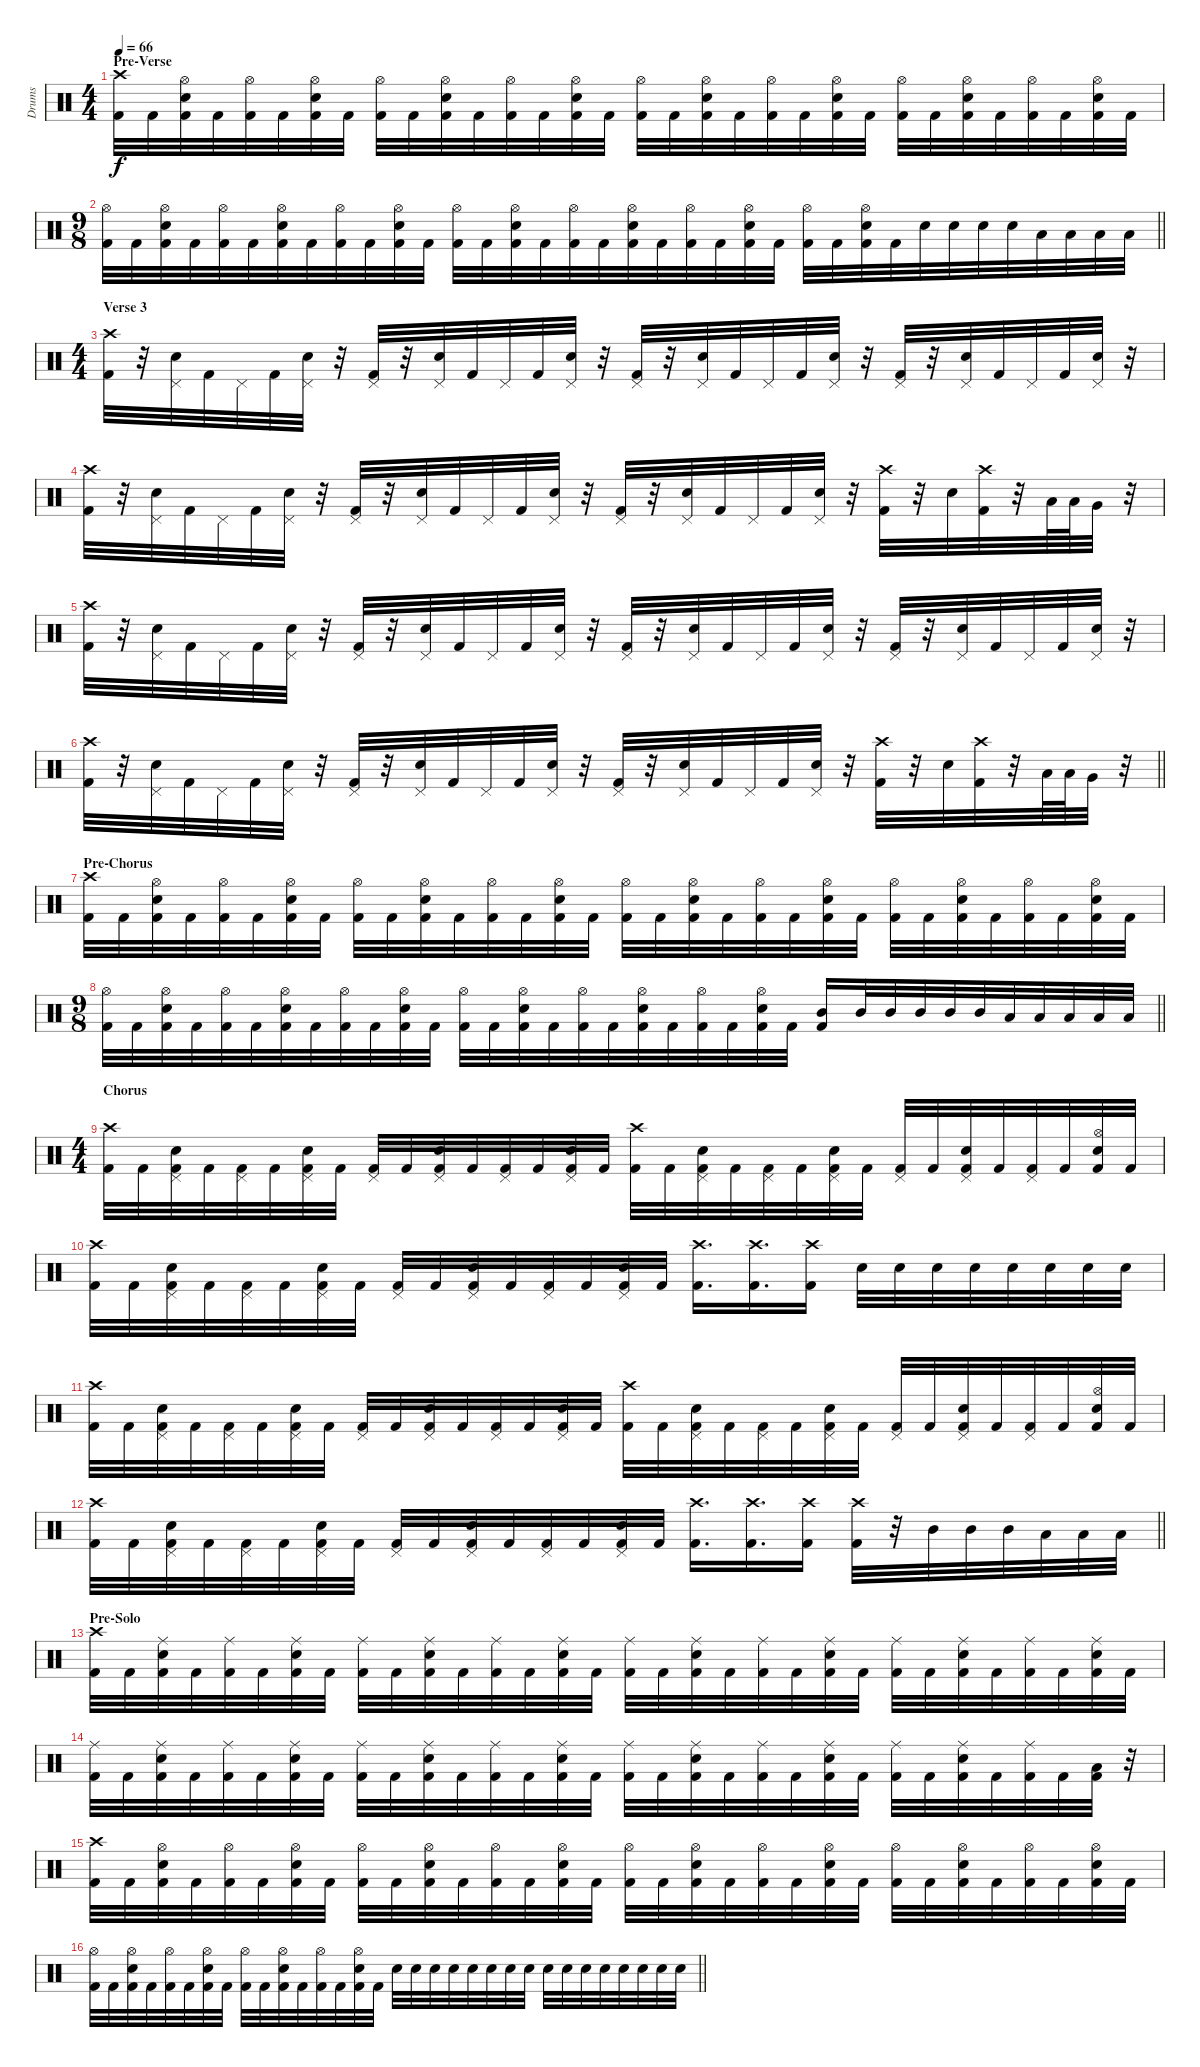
\track ("Drums" "Drums") {instrument percussion}
\staff {score}
\articulation defaults
\ts (4 4)
\section ("" "Pre-Verse")
\tempo 66
\clef neutral
\ks c
("Crash high (hit)" "Kick (hit) 2").32{dy f} "Kick (hit) 2".32 ("Hi-Hat (open)" "Snare (hit) 2" "Kick (hit) 2").32 "Kick (hit) 2".32 ("Hi-Hat (open)" "Kick (hit) 2").32 "Kick (hit) 2".32 ("Hi-Hat (open)" "Snare (hit) 2" "Kick (hit) 2").32 "Kick (hit) 2".32 ("Hi-Hat (open)" "Kick (hit) 2").32 "Kick (hit) 2".32 ("Hi-Hat (open)" "Snare (hit) 2" "Kick (hit) 2").32 "Kick (hit) 2".32 ("Hi-Hat (open)" "Kick (hit) 2").32 "Kick (hit) 2".32 ("Hi-Hat (open)" "Snare (hit) 2" "Kick (hit) 2").32 "Kick (hit) 2".32 ("Hi-Hat (open)" "Kick (hit) 2").32 "Kick (hit) 2".32 ("Hi-Hat (open)" "Snare (hit) 2" "Kick (hit) 2").32 "Kick (hit) 2".32 ("Hi-Hat (open)" "Kick (hit) 2").32 "Kick (hit) 2".32 ("Hi-Hat (open)" "Snare (hit) 2" "Kick (hit) 2").32 "Kick (hit) 2".32 ("Hi-Hat (open)" "Kick (hit) 2").32 "Kick (hit) 2".32 ("Hi-Hat (open)" "Snare (hit) 2" "Kick (hit) 2").32 "Kick (hit) 2".32 ("Hi-Hat (open)" "Kick (hit) 2").32 "Kick (hit) 2".32 ("Hi-Hat (open)" "Snare (hit) 2" "Kick (hit) 2").32 "Kick (hit) 2".32 |
\ts (9 8)
\barLineRight lightlight
("Hi-Hat (open)" "Kick (hit) 2").32 "Kick (hit) 2".32 ("Hi-Hat (open)" "Snare (hit) 2" "Kick (hit) 2").32 "Kick (hit) 2".32 ("Hi-Hat (open)" "Kick (hit) 2").32 "Kick (hit) 2".32 ("Hi-Hat (open)" "Snare (hit) 2" "Kick (hit) 2").32 "Kick (hit) 2".32 ("Hi-Hat (open)" "Kick (hit) 2").32 "Kick (hit) 2".32 ("Hi-Hat (open)" "Snare (hit) 2" "Kick (hit) 2").32 "Kick (hit) 2".32 ("Hi-Hat (open)" "Kick (hit) 2").32 "Kick (hit) 2".32 ("Hi-Hat (open)" "Snare (hit) 2" "Kick (hit) 2").32 "Kick (hit) 2".32 ("Hi-Hat (open)" "Kick (hit) 2").32 "Kick (hit) 2".32 ("Hi-Hat (open)" "Snare (hit) 2" "Kick (hit) 2").32 "Kick (hit) 2".32 ("Hi-Hat (open)" "Kick (hit) 2").32 "Kick (hit) 2".32 ("Hi-Hat (open)" "Snare (hit) 2" "Kick (hit) 2").32 "Kick (hit) 2".32 ("Hi-Hat (open)" "Kick (hit) 2").32 "Kick (hit) 2".32 ("Hi-Hat (open)" "Snare (hit) 2" "Kick (hit) 2").32 "Kick (hit) 2".32 "Snare (hit) 2".32 "Snare (hit) 2".32 "Snare (hit) 2".32 "Snare (hit) 2".32 "Low Tom (hit)".32 "Low Tom (hit)".32 "Low Tom (hit)".32 "Low Tom (hit)".32 |
\ts (4 4)
\section ("" "Verse 3")
("Crash high (hit)" "Kick (hit) 2").32 r.32 ("Pedal Hi-Hat (hit)" "Snare (hit) 2").32 "Kick (hit) 2".32 "Pedal Hi-Hat (hit)".32 "Kick (hit) 2".32 ("Pedal Hi-Hat (hit)" "Snare (hit) 2").32 r.32 ("Pedal Hi-Hat (hit)" "Kick (hit) 2").32 r.32 ("Pedal Hi-Hat (hit)" "Snare (hit) 2").32 "Kick (hit) 2".32 "Pedal Hi-Hat (hit)".32 "Kick (hit) 2".32 ("Pedal Hi-Hat (hit)" "Snare (hit) 2").32 r.32 ("Pedal Hi-Hat (hit)" "Kick (hit) 2").32 r.32 ("Pedal Hi-Hat (hit)" "Snare (hit) 2").32 "Kick (hit) 2".32 "Pedal Hi-Hat (hit)".32 "Kick (hit) 2".32 ("Pedal Hi-Hat (hit)" "Snare (hit) 2").32 r.32 ("Pedal Hi-Hat (hit)" "Kick (hit) 2").32 r.32 ("Pedal Hi-Hat (hit)" "Snare (hit) 2").32 "Kick (hit) 2".32 "Pedal Hi-Hat (hit)".32 "Kick (hit) 2".32 ("Pedal Hi-Hat (hit)" "Snare (hit) 2").32 r.32 |
("Crash high (hit)" "Kick (hit) 2").32 r.32 ("Pedal Hi-Hat (hit)" "Snare (hit) 2").32 "Kick (hit) 2".32 "Pedal Hi-Hat (hit)".32 "Kick (hit) 2".32 ("Pedal Hi-Hat (hit)" "Snare (hit) 2").32 r.32 ("Pedal Hi-Hat (hit)" "Kick (hit) 2").32 r.32 ("Pedal Hi-Hat (hit)" "Snare (hit) 2").32 "Kick (hit) 2".32 "Pedal Hi-Hat (hit)".32 "Kick (hit) 2".32 ("Pedal Hi-Hat (hit)" "Snare (hit) 2").32 r.32 ("Pedal Hi-Hat (hit)" "Kick (hit) 2").32 r.32 ("Pedal Hi-Hat (hit)" "Snare (hit) 2").32 "Kick (hit) 2".32 "Pedal Hi-Hat (hit)".32 "Kick (hit) 2".32 ("Pedal Hi-Hat (hit)" "Snare (hit) 2").32 r.32 ("Crash high (hit)" "Kick (hit) 2").32 r.32 "Snare (hit) 2".32 ("Crash high (hit)" "Kick (hit) 2").32 r.32 "Low Tom (hit)".64 "Low Tom (hit)".64 "Very Low Tom (hit)".32 r.32 |
("Crash high (hit)" "Kick (hit) 2").32 r.32 ("Pedal Hi-Hat (hit)" "Snare (hit) 2").32 "Kick (hit) 2".32 "Pedal Hi-Hat (hit)".32 "Kick (hit) 2".32 ("Pedal Hi-Hat (hit)" "Snare (hit) 2").32 r.32 ("Pedal Hi-Hat (hit)" "Kick (hit) 2").32 r.32 ("Pedal Hi-Hat (hit)" "Snare (hit) 2").32 "Kick (hit) 2".32 "Pedal Hi-Hat (hit)".32 "Kick (hit) 2".32 ("Pedal Hi-Hat (hit)" "Snare (hit) 2").32 r.32 ("Pedal Hi-Hat (hit)" "Kick (hit) 2").32 r.32 ("Pedal Hi-Hat (hit)" "Snare (hit) 2").32 "Kick (hit) 2".32 "Pedal Hi-Hat (hit)".32 "Kick (hit) 2".32 ("Pedal Hi-Hat (hit)" "Snare (hit) 2").32 r.32 ("Pedal Hi-Hat (hit)" "Kick (hit) 2").32 r.32 ("Pedal Hi-Hat (hit)" "Snare (hit) 2").32 "Kick (hit) 2".32 "Pedal Hi-Hat (hit)".32 "Kick (hit) 2".32 ("Pedal Hi-Hat (hit)" "Snare (hit) 2").32 r.32 |
\barLineRight lightlight
("Crash high (hit)" "Kick (hit) 2").32 r.32 ("Pedal Hi-Hat (hit)" "Snare (hit) 2").32 "Kick (hit) 2".32 "Pedal Hi-Hat (hit)".32 "Kick (hit) 2".32 ("Pedal Hi-Hat (hit)" "Snare (hit) 2").32 r.32 ("Pedal Hi-Hat (hit)" "Kick (hit) 2").32 r.32 ("Pedal Hi-Hat (hit)" "Snare (hit) 2").32 "Kick (hit) 2".32 "Pedal Hi-Hat (hit)".32 "Kick (hit) 2".32 ("Pedal Hi-Hat (hit)" "Snare (hit) 2").32 r.32 ("Pedal Hi-Hat (hit)" "Kick (hit) 2").32 r.32 ("Pedal Hi-Hat (hit)" "Snare (hit) 2").32 "Kick (hit) 2".32 "Pedal Hi-Hat (hit)".32 "Kick (hit) 2".32 ("Pedal Hi-Hat (hit)" "Snare (hit) 2").32 r.32 ("Crash high (hit)" "Kick (hit) 2").32 r.32 "Snare (hit) 2".32 ("Crash high (hit)" "Kick (hit) 2").32 r.32 "Low Tom (hit)".64 "Low Tom (hit)".64 "Very Low Tom (hit)".32 r.32 |
\section ("" "Pre-Chorus")
("Crash high (hit)" "Kick (hit) 2").32 "Kick (hit) 2".32 ("Hi-Hat (open)" "Snare (hit) 2" "Kick (hit) 2").32 "Kick (hit) 2".32 ("Hi-Hat (open)" "Kick (hit) 2").32 "Kick (hit) 2".32 ("Hi-Hat (open)" "Snare (hit) 2" "Kick (hit) 2").32 "Kick (hit) 2".32 ("Hi-Hat (open)" "Kick (hit) 2").32 "Kick (hit) 2".32 ("Hi-Hat (open)" "Snare (hit) 2" "Kick (hit) 2").32 "Kick (hit) 2".32 ("Hi-Hat (open)" "Kick (hit) 2").32 "Kick (hit) 2".32 ("Hi-Hat (open)" "Snare (hit) 2" "Kick (hit) 2").32 "Kick (hit) 2".32 ("Hi-Hat (open)" "Kick (hit) 2").32 "Kick (hit) 2".32 ("Hi-Hat (open)" "Snare (hit) 2" "Kick (hit) 2").32 "Kick (hit) 2".32 ("Hi-Hat (open)" "Kick (hit) 2").32 "Kick (hit) 2".32 ("Hi-Hat (open)" "Snare (hit) 2" "Kick (hit) 2").32 "Kick (hit) 2".32 ("Hi-Hat (open)" "Kick (hit) 2").32 "Kick (hit) 2".32 ("Hi-Hat (open)" "Snare (hit) 2" "Kick (hit) 2").32 "Kick (hit) 2".32 ("Hi-Hat (open)" "Kick (hit) 2").32 "Kick (hit) 2".32 ("Hi-Hat (open)" "Snare (hit) 2" "Kick (hit) 2").32 "Kick (hit) 2".32 |
\ts (9 8)
\barLineRight lightlight
("Hi-Hat (open)" "Kick (hit) 2").32 "Kick (hit) 2".32 ("Hi-Hat (open)" "Snare (hit) 2" "Kick (hit) 2").32 "Kick (hit) 2".32 ("Hi-Hat (open)" "Kick (hit) 2").32 "Kick (hit) 2".32 ("Hi-Hat (open)" "Snare (hit) 2" "Kick (hit) 2").32 "Kick (hit) 2".32 ("Hi-Hat (open)" "Kick (hit) 2").32 "Kick (hit) 2".32 ("Hi-Hat (open)" "Snare (hit) 2" "Kick (hit) 2").32 "Kick (hit) 2".32 ("Hi-Hat (open)" "Kick (hit) 2").32 "Kick (hit) 2".32 ("Hi-Hat (open)" "Snare (hit) 2" "Kick (hit) 2").32 "Kick (hit) 2".32 ("Hi-Hat (open)" "Kick (hit) 2").32 "Kick (hit) 2".32 ("Hi-Hat (open)" "Snare (hit) 2" "Kick (hit) 2").32 "Kick (hit) 2".32 ("Hi-Hat (open)" "Kick (hit) 2").32 "Kick (hit) 2".32 ("Hi-Hat (open)" "Snare (hit) 2" "Kick (hit) 2").32 "Kick (hit) 2".32 ("Mid Tom (hit)" "Kick (hit) 2").16 "Mid Tom (hit)".32 "Mid Tom (hit)".32 "Mid Tom (hit)".32 "Mid Tom (hit)".32 "Mid Tom (hit)".32 "Low Tom (hit)".32 "Low Tom (hit)".32 "Low Tom (hit)".32 "Low Tom (hit)".32 "Low Tom (hit)".32 |
\ts (4 4)
\section ("" "Chorus")
("Crash high (hit)" "Kick (hit) 2").32 "Kick (hit) 2".32 ("Pedal Hi-Hat (hit)" "Snare (hit) 2" "Kick (hit) 2").32 "Kick (hit) 2".32 ("Pedal Hi-Hat (hit)" "Kick (hit) 2").32 "Kick (hit) 2".32 ("Pedal Hi-Hat (hit)" "Snare (hit) 2" "Kick (hit) 2").32 "Kick (hit) 2".32 ("Pedal Hi-Hat (hit)" "Kick (hit) 2").32 "Kick (hit) 2".32 ("Pedal Hi-Hat (hit)" "Snare (hit) 2" "Kick (hit) 2").32 "Kick (hit) 2".32 ("Pedal Hi-Hat (hit)" "Kick (hit) 2").32 "Kick (hit) 2".32 ("Pedal Hi-Hat (hit)" "Snare (hit) 2" "Kick (hit) 2").32 "Kick (hit) 2".32 ("Crash high (hit)" "Kick (hit) 2").32 "Kick (hit) 2".32 ("Pedal Hi-Hat (hit)" "Snare (hit) 2" "Kick (hit) 2").32 "Kick (hit) 2".32 ("Pedal Hi-Hat (hit)" "Kick (hit) 2").32 "Kick (hit) 2".32 ("Pedal Hi-Hat (hit)" "Snare (hit) 2" "Kick (hit) 2").32 "Kick (hit) 2".32 ("Pedal Hi-Hat (hit)" "Kick (hit) 2").32 "Kick (hit) 2".32 ("Pedal Hi-Hat (hit)" "Snare (hit) 2" "Kick (hit) 2").32 "Kick (hit) 2".32 ("Pedal Hi-Hat (hit)" "Kick (hit) 2").32 "Kick (hit) 2".32 ("Hi-Hat (open)" "Snare (hit) 2" "Kick (hit) 2").32 "Kick (hit) 2".32 |
("Crash high (hit)" "Kick (hit) 2").32 "Kick (hit) 2".32 ("Pedal Hi-Hat (hit)" "Snare (hit) 2" "Kick (hit) 2").32 "Kick (hit) 2".32 ("Pedal Hi-Hat (hit)" "Kick (hit) 2").32 "Kick (hit) 2".32 ("Pedal Hi-Hat (hit)" "Snare (hit) 2" "Kick (hit) 2").32 "Kick (hit) 2".32 ("Pedal Hi-Hat (hit)" "Kick (hit) 2").32 "Kick (hit) 2".32 ("Pedal Hi-Hat (hit)" "Snare (hit) 2" "Kick (hit) 2").32 "Kick (hit) 2".32 ("Pedal Hi-Hat (hit)" "Kick (hit) 2").32 "Kick (hit) 2".32 ("Pedal Hi-Hat (hit)" "Snare (hit) 2" "Kick (hit) 2").32 "Kick (hit) 2".32 ("Crash high (hit)" "Kick (hit) 2").16{d} ("Crash high (hit)" "Kick (hit) 2").16{d} ("Crash high (hit)" "Kick (hit) 2").16 "Snare (hit) 2".32 "Snare (hit) 2".32 "Snare (hit) 2".32 "Snare (hit) 2".32 "Snare (hit) 2".32 "Snare (hit) 2".32 "Snare (hit) 2".32 "Snare (hit) 2".32 |
("Crash high (hit)" "Kick (hit) 2").32 "Kick (hit) 2".32 ("Pedal Hi-Hat (hit)" "Snare (hit) 2" "Kick (hit) 2").32 "Kick (hit) 2".32 ("Pedal Hi-Hat (hit)" "Kick (hit) 2").32 "Kick (hit) 2".32 ("Pedal Hi-Hat (hit)" "Snare (hit) 2" "Kick (hit) 2").32 "Kick (hit) 2".32 ("Pedal Hi-Hat (hit)" "Kick (hit) 2").32 "Kick (hit) 2".32 ("Pedal Hi-Hat (hit)" "Snare (hit) 2" "Kick (hit) 2").32 "Kick (hit) 2".32 ("Pedal Hi-Hat (hit)" "Kick (hit) 2").32 "Kick (hit) 2".32 ("Pedal Hi-Hat (hit)" "Snare (hit) 2" "Kick (hit) 2").32 "Kick (hit) 2".32 ("Crash high (hit)" "Kick (hit) 2").32 "Kick (hit) 2".32 ("Pedal Hi-Hat (hit)" "Snare (hit) 2" "Kick (hit) 2").32 "Kick (hit) 2".32 ("Pedal Hi-Hat (hit)" "Kick (hit) 2").32 "Kick (hit) 2".32 ("Pedal Hi-Hat (hit)" "Snare (hit) 2" "Kick (hit) 2").32 "Kick (hit) 2".32 ("Pedal Hi-Hat (hit)" "Kick (hit) 2").32 "Kick (hit) 2".32 ("Pedal Hi-Hat (hit)" "Snare (hit) 2" "Kick (hit) 2").32 "Kick (hit) 2".32 ("Pedal Hi-Hat (hit)" "Kick (hit) 2").32 "Kick (hit) 2".32 ("Hi-Hat (open)" "Snare (hit) 2" "Kick (hit) 2").32 "Kick (hit) 2".32 |
\barLineRight lightlight
("Crash high (hit)" "Kick (hit) 2").32 "Kick (hit) 2".32 ("Pedal Hi-Hat (hit)" "Snare (hit) 2" "Kick (hit) 2").32 "Kick (hit) 2".32 ("Pedal Hi-Hat (hit)" "Kick (hit) 2").32 "Kick (hit) 2".32 ("Pedal Hi-Hat (hit)" "Snare (hit) 2" "Kick (hit) 2").32 "Kick (hit) 2".32 ("Pedal Hi-Hat (hit)" "Kick (hit) 2").32 "Kick (hit) 2".32 ("Pedal Hi-Hat (hit)" "Snare (hit) 2" "Kick (hit) 2").32 "Kick (hit) 2".32 ("Pedal Hi-Hat (hit)" "Kick (hit) 2").32 "Kick (hit) 2".32 ("Pedal Hi-Hat (hit)" "Snare (hit) 2" "Kick (hit) 2").32 "Kick (hit) 2".32 ("Crash high (hit)" "Kick (hit) 2").16{d} ("Crash high (hit)" "Kick (hit) 2").16{d} ("Crash high (hit)" "Kick (hit) 2").16 ("Crash high (hit)" "Kick (hit) 2").32 r.32 "Mid Tom (hit)".32 "Mid Tom (hit)".32 "Mid Tom (hit)".32 "Low Tom (hit)".32 "Low Tom (hit)".32 "Low Tom (hit)".32 |
\section ("" "Pre-Solo")
("Crash high (hit)" "Kick (hit) 2").32 "Kick (hit) 2".32 ("Ride (middle)" "Snare (hit) 2" "Kick (hit) 2").32 "Kick (hit) 2".32 ("Ride (middle)" "Kick (hit) 2").32 "Kick (hit) 2".32 ("Ride (middle)" "Snare (hit) 2" "Kick (hit) 2").32 "Kick (hit) 2".32 ("Ride (middle)" "Kick (hit) 2").32 "Kick (hit) 2".32 ("Ride (middle)" "Snare (hit) 2" "Kick (hit) 2").32 "Kick (hit) 2".32 ("Ride (middle)" "Kick (hit) 2").32 "Kick (hit) 2".32 ("Ride (middle)" "Snare (hit) 2" "Kick (hit) 2").32 "Kick (hit) 2".32 ("Ride (middle)" "Kick (hit) 2").32 "Kick (hit) 2".32 ("Ride (middle)" "Snare (hit) 2" "Kick (hit) 2").32 "Kick (hit) 2".32 ("Ride (middle)" "Kick (hit) 2").32 "Kick (hit) 2".32 ("Ride (middle)" "Snare (hit) 2" "Kick (hit) 2").32 "Kick (hit) 2".32 ("Ride (middle)" "Kick (hit) 2").32 "Kick (hit) 2".32 ("Ride (middle)" "Snare (hit) 2" "Kick (hit) 2").32 "Kick (hit) 2".32 ("Ride (middle)" "Kick (hit) 2").32 "Kick (hit) 2".32 ("Ride (middle)" "Snare (hit) 2" "Kick (hit) 2").32 "Kick (hit) 2".32 |
("Ride (middle)" "Kick (hit) 2").32 "Kick (hit) 2".32 ("Ride (middle)" "Snare (hit) 2" "Kick (hit) 2").32 "Kick (hit) 2".32 ("Ride (middle)" "Kick (hit) 2").32 "Kick (hit) 2".32 ("Ride (middle)" "Snare (hit) 2" "Kick (hit) 2").32 "Kick (hit) 2".32 ("Ride (middle)" "Kick (hit) 2").32 "Kick (hit) 2".32 ("Ride (middle)" "Snare (hit) 2" "Kick (hit) 2").32 "Kick (hit) 2".32 ("Ride (middle)" "Kick (hit) 2").32 "Kick (hit) 2".32 ("Ride (middle)" "Snare (hit) 2" "Kick (hit) 2").32 "Kick (hit) 2".32 ("Ride (middle)" "Kick (hit) 2").32 "Kick (hit) 2".32 ("Ride (middle)" "Snare (hit) 2" "Kick (hit) 2").32 "Kick (hit) 2".32 ("Ride (middle)" "Kick (hit) 2").32 "Kick (hit) 2".32 ("Ride (middle)" "Snare (hit) 2" "Kick (hit) 2").32 "Kick (hit) 2".32 ("Ride (middle)" "Kick (hit) 2").32 "Kick (hit) 2".32 ("Ride (middle)" "Snare (hit) 2" "Kick (hit) 2").32 "Kick (hit) 2".32 ("Ride (middle)" "Kick (hit) 2").32 "Kick (hit) 2".32 ("Low Tom (hit)" "Kick (hit) 2").32 r.32 |
("Crash high (hit)" "Kick (hit) 2").32 "Kick (hit) 2".32 ("Hi-Hat (open)" "Snare (hit) 2" "Kick (hit) 2").32 "Kick (hit) 2".32 ("Hi-Hat (open)" "Kick (hit) 2").32 "Kick (hit) 2".32 ("Hi-Hat (open)" "Snare (hit) 2" "Kick (hit) 2").32 "Kick (hit) 2".32 ("Hi-Hat (open)" "Kick (hit) 2").32 "Kick (hit) 2".32 ("Hi-Hat (open)" "Snare (hit) 2" "Kick (hit) 2").32 "Kick (hit) 2".32 ("Hi-Hat (open)" "Kick (hit) 2").32 "Kick (hit) 2".32 ("Hi-Hat (open)" "Snare (hit) 2" "Kick (hit) 2").32 "Kick (hit) 2".32 ("Hi-Hat (open)" "Kick (hit) 2").32 "Kick (hit) 2".32 ("Hi-Hat (open)" "Snare (hit) 2" "Kick (hit) 2").32 "Kick (hit) 2".32 ("Hi-Hat (open)" "Kick (hit) 2").32 "Kick (hit) 2".32 ("Hi-Hat (open)" "Snare (hit) 2" "Kick (hit) 2").32 "Kick (hit) 2".32 ("Hi-Hat (open)" "Kick (hit) 2").32 "Kick (hit) 2".32 ("Hi-Hat (open)" "Snare (hit) 2" "Kick (hit) 2").32 "Kick (hit) 2".32 ("Hi-Hat (open)" "Kick (hit) 2").32 "Kick (hit) 2".32 ("Hi-Hat (open)" "Snare (hit) 2" "Kick (hit) 2").32 "Kick (hit) 2".32 |
\barLineRight lightlight
("Hi-Hat (open)" "Kick (hit) 2").32 "Kick (hit) 2".32 ("Hi-Hat (open)" "Snare (hit) 2" "Kick (hit) 2").32 "Kick (hit) 2".32 ("Hi-Hat (open)" "Kick (hit) 2").32 "Kick (hit) 2".32 ("Hi-Hat (open)" "Snare (hit) 2" "Kick (hit) 2").32 "Kick (hit) 2".32 ("Hi-Hat (open)" "Kick (hit) 2").32 "Kick (hit) 2".32 ("Hi-Hat (open)" "Snare (hit) 2" "Kick (hit) 2").32 "Kick (hit) 2".32 ("Hi-Hat (open)" "Kick (hit) 2").32 "Kick (hit) 2".32 ("Hi-Hat (open)" "Snare (hit) 2" "Kick (hit) 2").32 "Kick (hit) 2".32 "Snare (hit) 2".32 "Snare (hit) 2".32 "Snare (hit) 2".32 "Snare (hit) 2".32 "Snare (hit) 2".32 "Snare (hit) 2".32 "Snare (hit) 2".32 "Snare (hit) 2".32 "Snare (hit) 2".32 "Snare (hit) 2".32 "Snare (hit) 2".32 "Snare (hit) 2".32 "Snare (hit) 2".32 "Snare (hit) 2".32 "Snare (hit) 2".32 "Snare (hit) 2".32
